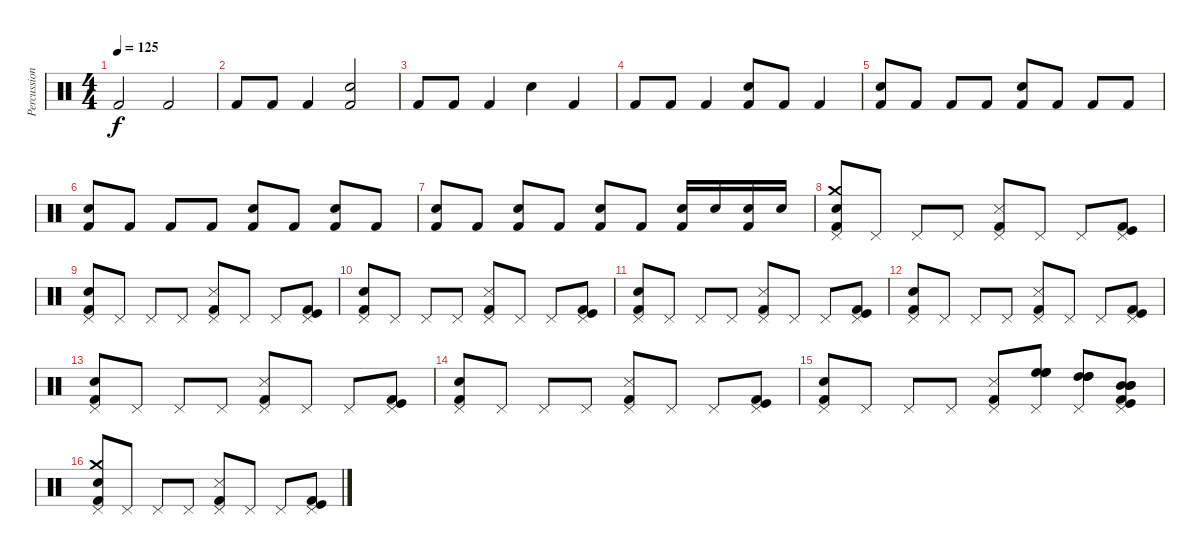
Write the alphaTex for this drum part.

\track ("Percussions" "Percussion") {instrument percussion}
\staff {score}
\articulation defaults
\ts (4 4)
\tempo 125
\clef neutral
\ks c "Kick (hit) 2".2{dy f} "Kick (hit) 2".2
|
"Kick (hit) 2".8 "Kick (hit) 2".8 "Kick (hit) 2".4 ("Snare (hit) 2" "Kick (hit) 2").2 |
"Kick (hit) 2".8 "Kick (hit) 2".8 "Kick (hit) 2".4 "Snare (hit) 2".4 "Kick (hit) 2".4 |
"Kick (hit) 2".8 "Kick (hit) 2".8 "Kick (hit) 2".4 ("Snare (hit) 2" "Kick (hit) 2").8 "Kick (hit) 2".8 "Kick (hit) 2".4 |
("Snare (hit) 2" "Kick (hit) 2").8 "Kick (hit) 2".8 "Kick (hit) 2".8 "Kick (hit) 2".8 ("Snare (hit) 2" "Kick (hit) 2").8 "Kick (hit) 2".8 "Kick (hit) 2".8 "Kick (hit) 2".8 |
("Snare (hit) 2" "Kick (hit) 2").8 "Kick (hit) 2".8 "Kick (hit) 2".8 "Kick (hit) 2".8 ("Snare (hit) 2" "Kick (hit) 2").8 "Kick (hit) 2".8 ("Snare (hit) 2" "Kick (hit) 2").8 "Kick (hit) 2".8 |
("Snare (hit) 2" "Kick (hit) 2").8 "Kick (hit) 2".8 ("Snare (hit) 2" "Kick (hit) 2").8 "Kick (hit) 2".8 ("Snare (hit) 2" "Kick (hit) 2").8 "Kick (hit) 2".8 ("Snare (hit) 2" "Kick (hit) 2").16 "Snare (hit) 2".16 ("Snare (hit) 2" "Kick (hit) 2").16 "Snare (hit) 2".16 |
("Crash medium (hit)" "Snare (hit) 2" "Kick (hit) 2" "Pedal Hi-Hat (hit)").8 "Pedal Hi-Hat (hit)".8 "Pedal Hi-Hat (hit)".8 "Pedal Hi-Hat (hit)".8 ("Metronome (hit)" "Kick (hit) 2" "Pedal Hi-Hat (hit)").8 "Pedal Hi-Hat (hit)".8 "Pedal Hi-Hat (hit)".8 ("Kick (hit) 2" "Kick (hit)" "Pedal Hi-Hat (hit)").8 |
("Snare (hit) 2" "Kick (hit) 2" "Pedal Hi-Hat (hit)").8 "Pedal Hi-Hat (hit)".8 "Pedal Hi-Hat (hit)".8 "Pedal Hi-Hat (hit)".8 ("Metronome (hit)" "Kick (hit) 2" "Pedal Hi-Hat (hit)").8 "Pedal Hi-Hat (hit)".8 "Pedal Hi-Hat (hit)".8 ("Kick (hit) 2" "Kick (hit)" "Pedal Hi-Hat (hit)").8 |
("Snare (hit) 2" "Kick (hit) 2" "Pedal Hi-Hat (hit)").8 "Pedal Hi-Hat (hit)".8 "Pedal Hi-Hat (hit)".8 "Pedal Hi-Hat (hit)".8 ("Metronome (hit)" "Kick (hit) 2" "Pedal Hi-Hat (hit)").8 "Pedal Hi-Hat (hit)".8 "Pedal Hi-Hat (hit)".8 ("Kick (hit) 2" "Kick (hit)" "Pedal Hi-Hat (hit)").8 |
("Snare (hit) 2" "Kick (hit) 2" "Pedal Hi-Hat (hit)").8 "Pedal Hi-Hat (hit)".8 "Pedal Hi-Hat (hit)".8 "Pedal Hi-Hat (hit)".8 ("Metronome (hit)" "Kick (hit) 2" "Pedal Hi-Hat (hit)").8 "Pedal Hi-Hat (hit)".8 "Pedal Hi-Hat (hit)".8 ("Kick (hit) 2" "Kick (hit)" "Pedal Hi-Hat (hit)").8 |
("Snare (hit) 2" "Kick (hit) 2" "Pedal Hi-Hat (hit)").8 "Pedal Hi-Hat (hit)".8 "Pedal Hi-Hat (hit)".8 "Pedal Hi-Hat (hit)".8 ("Metronome (hit)" "Kick (hit) 2" "Pedal Hi-Hat (hit)").8 "Pedal Hi-Hat (hit)".8 "Pedal Hi-Hat (hit)".8 ("Kick (hit) 2" "Kick (hit)" "Pedal Hi-Hat (hit)").8 |
("Snare (hit) 2" "Kick (hit) 2" "Pedal Hi-Hat (hit)").8 "Pedal Hi-Hat (hit)".8 "Pedal Hi-Hat (hit)".8 "Pedal Hi-Hat (hit)".8 ("Metronome (hit)" "Kick (hit) 2" "Pedal Hi-Hat (hit)").8 "Pedal Hi-Hat (hit)".8 "Pedal Hi-Hat (hit)".8 ("Kick (hit) 2" "Kick (hit)" "Pedal Hi-Hat (hit)").8 |
("Snare (hit) 2" "Kick (hit) 2" "Pedal Hi-Hat (hit)").8 "Pedal Hi-Hat (hit)".8 "Pedal Hi-Hat (hit)".8 "Pedal Hi-Hat (hit)".8 ("Metronome (hit)" "Kick (hit) 2" "Pedal Hi-Hat (hit)").8 "Pedal Hi-Hat (hit)".8 "Pedal Hi-Hat (hit)".8 ("Kick (hit) 2" "Kick (hit)" "Pedal Hi-Hat (hit)").8 |
("Snare (hit) 2" "Kick (hit) 2" "Pedal Hi-Hat (hit)").8 "Pedal Hi-Hat (hit)".8 "Pedal Hi-Hat (hit)".8 "Pedal Hi-Hat (hit)".8 ("Metronome (hit)" "Kick (hit) 2" "Pedal Hi-Hat (hit)").8 ("High Floor Tom (hit)" "High Floor Tom (hit)" "Pedal Hi-Hat (hit)" "High Floor Tom (hit)").8 ("High Tom (hit)" "High Tom (hit)" "Pedal Hi-Hat (hit)" "High Tom (hit)").8 ("Mid Tom (hit)" "Mid Tom (hit)" "Kick (hit) 2" "Kick (hit)" "Pedal Hi-Hat (hit)" "Mid Tom (hit)").8 |
("Crash medium (hit)" "Snare (hit) 2" "Kick (hit) 2" "Pedal Hi-Hat (hit)").8 "Pedal Hi-Hat (hit)".8 "Pedal Hi-Hat (hit)".8 "Pedal Hi-Hat (hit)".8 ("Metronome (hit)" "Kick (hit) 2" "Pedal Hi-Hat (hit)").8 "Pedal Hi-Hat (hit)".8 "Pedal Hi-Hat (hit)".8 ("Kick (hit) 2" "Kick (hit)" "Pedal Hi-Hat (hit)").8
